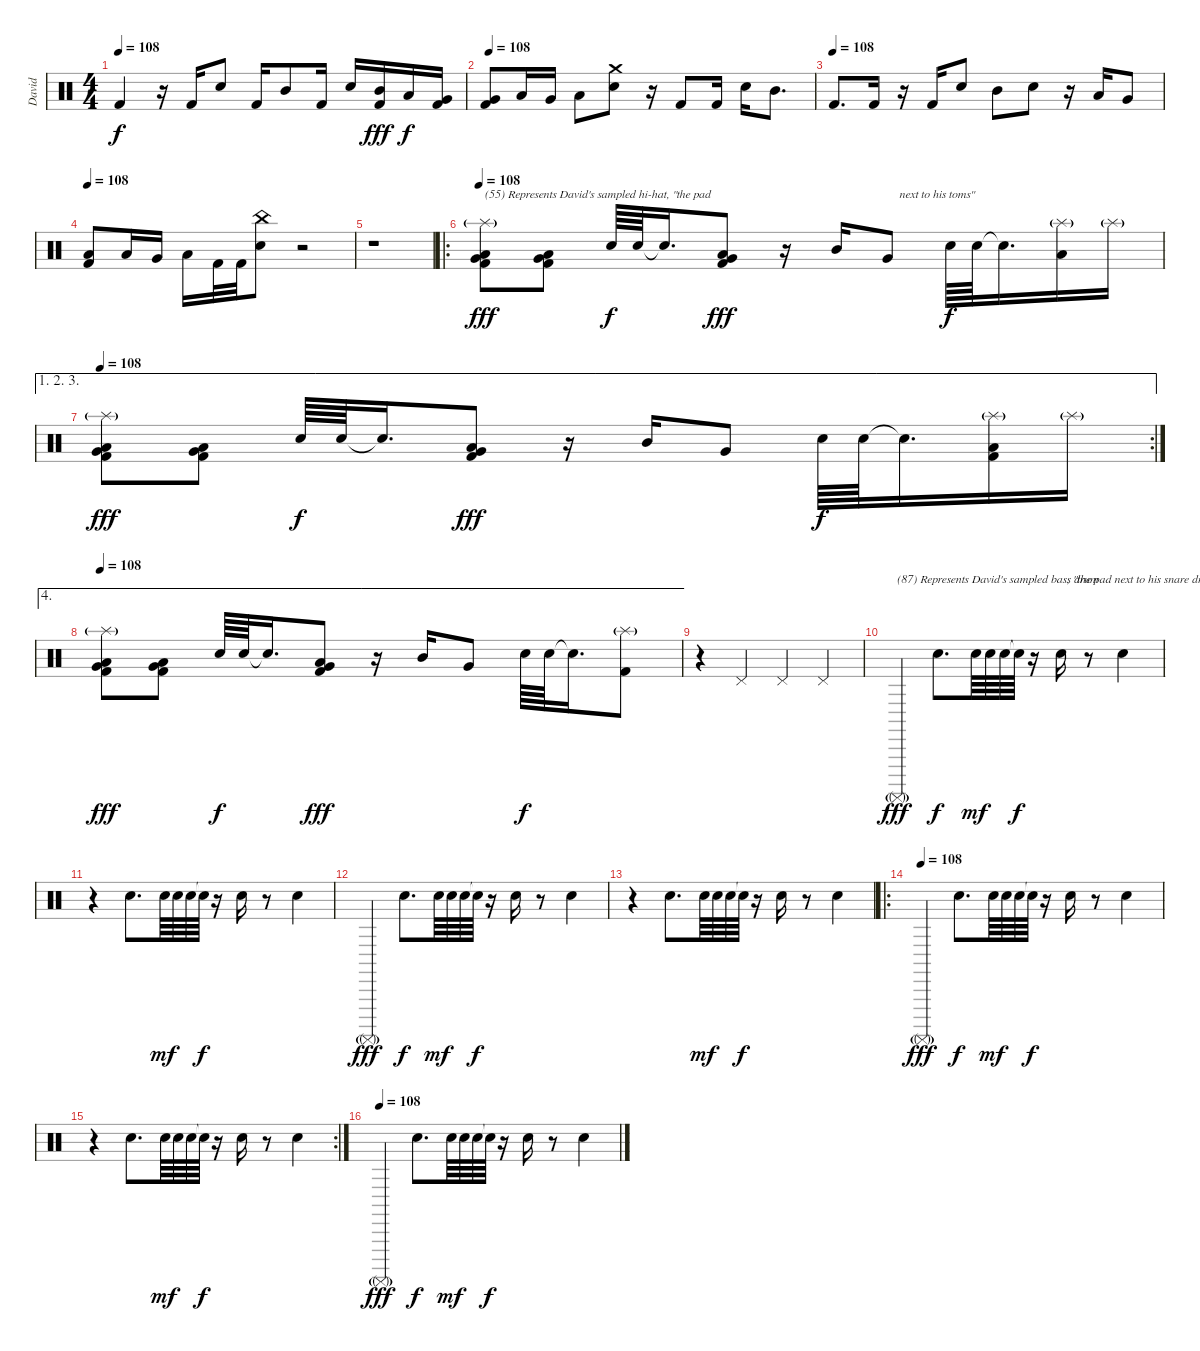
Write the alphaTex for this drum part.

\track ("David" "David") {instrument percussion}
\staff {score}
\articulation defaults
\ts (4 4)
\tempo 108
\clef neutral
\ks c "Kick (hit) 2".4{dy f}
r.16 "Kick (hit) 2".16 "Snare (hit) 2".8 "Kick (hit) 2".16 "Mid Tom (hit)".8 "Kick (hit) 2".16 "Snare (hit) 2".16 ("Mid Tom (hit)" "Kick (hit) 2").16{dy fff} "Low Tom (hit)".16{dy f} ("Very Low Tom (hit)" "Kick (hit) 2").16 |
\tempo 108
("Very Low Tom (hit)" "Kick (hit) 2").8 "Low Tom (hit)".16 "Very Low Tom (hit)".16 "Low Floor Tom (hit)".8 ("Crash medium (hit)" "Snare (hit) 2").8 r.16 "Kick (hit) 2".8 "Kick (hit) 2".16 "Snare (hit) 2".16 "Mid Tom (hit)".8{d} |
\tempo (108)
"Kick (hit) 2".8{d} "Kick (hit) 2".16 r.16 "Kick (hit) 2".16 "Snare (hit) 2".8 "Mid Tom (hit)".8 "Snare (hit) 2".8 r.16 "Low Tom (hit)".16 "Very Low Tom (hit)".8 |
\tempo 108
("Low Floor Tom (hit)" "Kick (hit) 2").8 "Low Tom (hit)".16 "Very Low Tom (hit)".16 "Low Floor Tom (hit)".16 "Kick (hit) 2".32 "Kick (hit) 2".32 ("China (hit)" "Snare (hit) 2").8 r.2 |
r.1 |
\ro
\tempo 108
("Splash (hit)"{g} "Low Tom (hit)" "Very Low Tom (hit)" "Kick (hit) 2").8{txt "(55) Represents David's sampled hi-hat, \"the pad  " dy fff} ("Low Tom (hit)" "Very Low Tom (hit)" "Kick (hit) 2").8 "Snare (hit) 2".64{dy f} "Snare (hit) 2".64 "Snare (hit)"{t}.16{d} ("Low Tom (hit)" "Very Low Tom (hit)" "Kick (hit) 2").8{dy fff} r.16 "Mid Tom (hit)".16{txt "                     next to his toms\""} "Very Low Tom (hit)".8 "Snare (hit) 2".64{dy f} "Snare (hit) 2".64 "Snare (hit)"{t}.16{d} ("Splash (hit)"{g} "Low Floor Tom (hit)").16 "Splash (hit)"{g}.16 |
\ae (1 2 3)
\rc 2
\tempo 108
("Splash (hit)"{g} "Low Tom (hit)" "Very Low Tom (hit)" "Kick (hit) 2").8{dy fff} ("Low Tom (hit)" "Very Low Tom (hit)" "Kick (hit) 2").8 "Snare (hit) 2".64{dy f} "Snare (hit) 2".64 "Snare (hit)"{t}.16{d} ("Low Tom (hit)" "Very Low Tom (hit)" "Kick (hit) 2").8{dy fff} r.16 "Mid Tom (hit)".16 "Very Low Tom (hit)".8 "Snare (hit) 2".64{dy f} "Snare (hit) 2".64 "Snare (hit)"{t}.16{d} ("Splash (hit)"{g} "Low Floor Tom (hit)" "Kick (hit) 2").16 "Splash (hit)"{g}.16 |
\ae 4
\tempo 108
("Splash (hit)"{g} "Low Tom (hit)" "Very Low Tom (hit)" "Kick (hit) 2").8{dy fff} ("Low Tom (hit)" "Very Low Tom (hit)" "Kick (hit) 2").8 "Snare (hit) 2".64{dy f} "Snare (hit) 2".64 "Snare (hit)"{t}.16{d} ("Low Tom (hit)" "Very Low Tom (hit)" "Kick (hit) 2").8{dy fff} r.16 "Mid Tom (hit)".16 "Very Low Tom (hit)".8 "Snare (hit) 2".64{dy f} "Snare (hit) 2".64 "Snare (hit)"{t}.16{d} ("Splash (hit)"{g} "Kick (hit) 2").8 |
r.4 "Pedal Hi-Hat (hit)".4 "Pedal Hi-Hat (hit)".4 "Pedal Hi-Hat (hit)".4 |
"Surdo (mute)"{g}.4{txt "(87) Represents David's sampled bass drum" dy fff} "Snare (hit) 2".8{d dy f} "Snare (hit) 2".64{dy mf} "Snare (hit) 2".64 "Snare (hit) 2".64 "Snare (hit) 2"{t}.64{dy f} r.16 "Snare (hit) 2".16{txt "  , \"the pad next to his snare drum\""} r.8 "Snare (hit) 2".4 |
r.4 "Snare (hit) 2".8{d} "Snare (hit) 2".64{dy mf} "Snare (hit) 2".64 "Snare (hit) 2".64 "Snare (hit) 2"{t}.64{dy f} r.16 "Snare (hit) 2".16 r.8 "Snare (hit) 2".4 |
"Surdo (mute)"{g}.4{dy fff} "Snare (hit) 2".8{d dy f} "Snare (hit) 2".64{dy mf} "Snare (hit) 2".64 "Snare (hit) 2".64 "Snare (hit) 2"{t}.64{dy f} r.16 "Snare (hit) 2".16 r.8 "Snare (hit) 2".4 |
r.4 "Snare (hit) 2".8{d} "Snare (hit) 2".64{dy mf} "Snare (hit) 2".64 "Snare (hit) 2".64 "Snare (hit) 2"{t}.64{dy f} r.16 "Snare (hit) 2".16 r.8 "Snare (hit) 2".4 |
\ro
\tempo (108)
"Surdo (mute)"{g}.4{dy fff} "Snare (hit) 2".8{d dy f} "Snare (hit) 2".64{dy mf} "Snare (hit) 2".64 "Snare (hit) 2".64 "Snare (hit) 2"{t}.64{dy f} r.16 "Snare (hit) 2".16 r.8 "Snare (hit) 2".4 |
\rc 2
r.4 "Snare (hit) 2".8{d} "Snare (hit) 2".64{dy mf} "Snare (hit) 2".64 "Snare (hit) 2".64 "Snare (hit) 2"{t}.64{dy f} r.16 "Snare (hit) 2".16 r.8 "Snare (hit) 2".4 |
\tempo (108)
"Surdo (mute)"{g}.4{dy fff} "Snare (hit) 2".8{d dy f} "Snare (hit) 2".64{dy mf} "Snare (hit) 2".64 "Snare (hit) 2".64 "Snare (hit) 2"{t}.64{dy f} r.16 "Snare (hit) 2".16 r.8 "Snare (hit) 2".4
